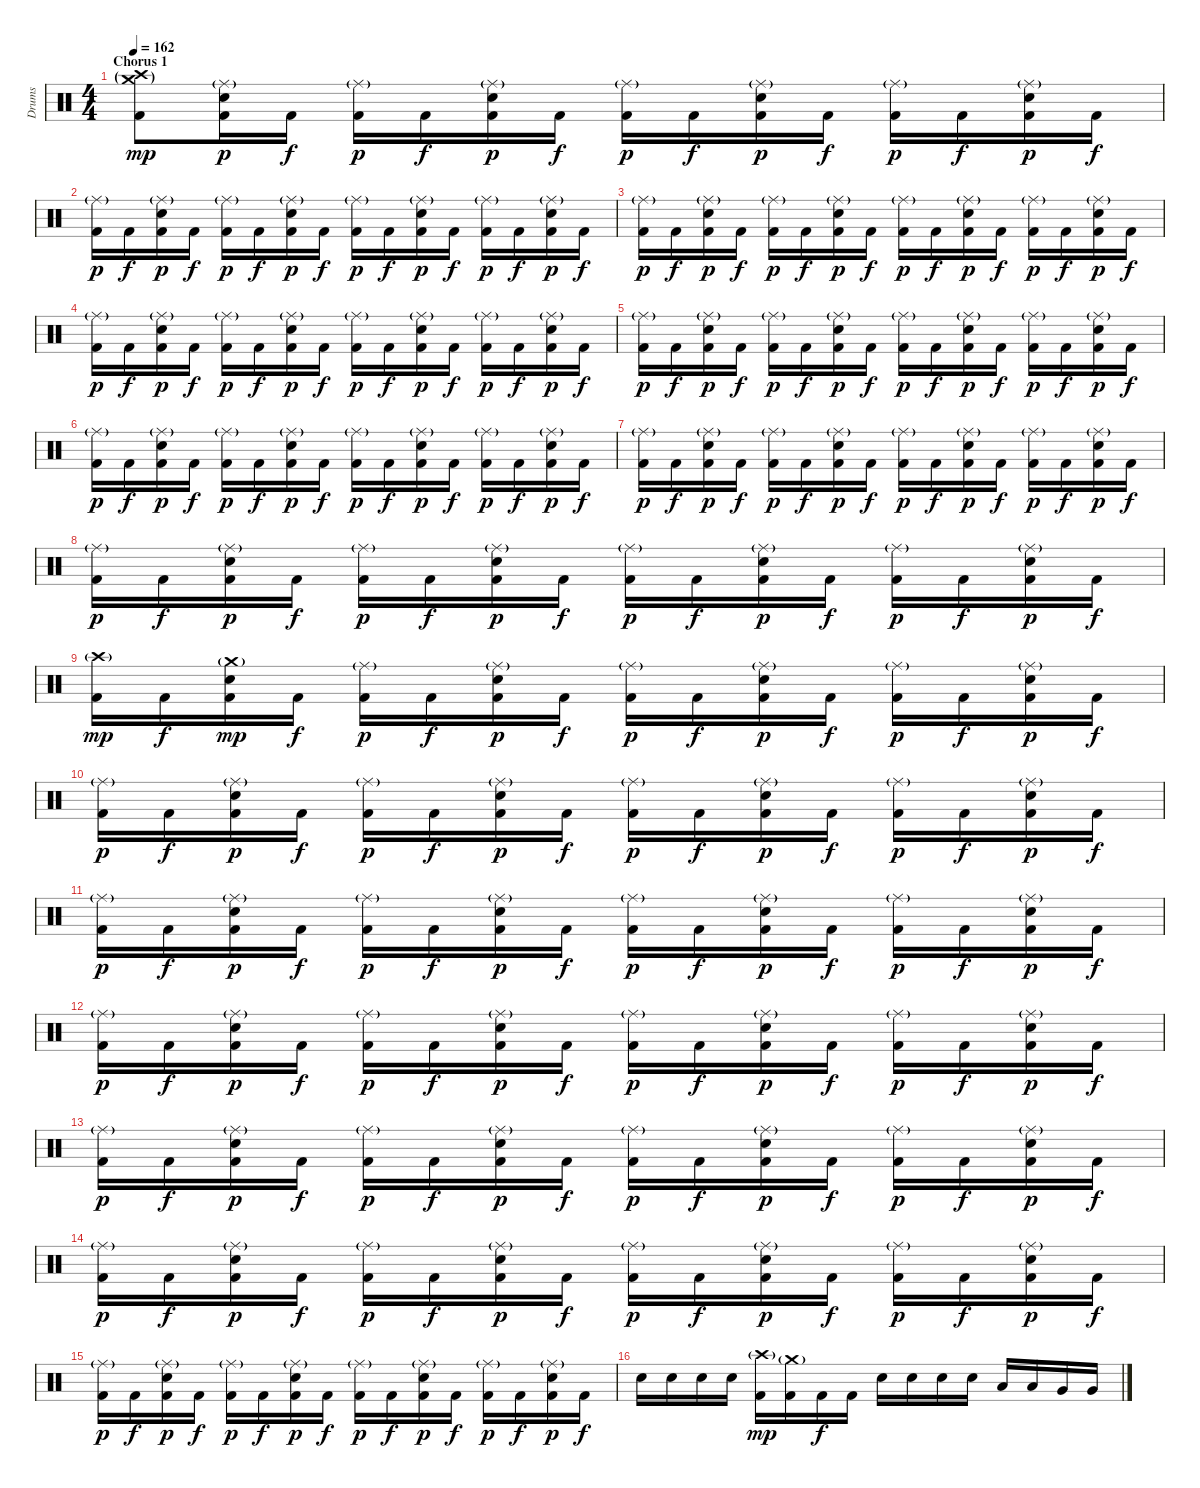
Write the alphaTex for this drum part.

\track ("Drums" "Drums") {instrument percussion}
\staff {score}
\articulation defaults
\ts (4 4)
\section ("" "Chorus 1")
\tempo 162
\clef neutral
\ks c
("Crash medium (hit)"{g} "Crash high (hit)"{g} "Kick (hit) 2").8{dy mp} ("Ride (middle)"{g} "Snare (hit) 2" "Kick (hit) 2").16{dy p} "Kick (hit) 2".16{dy f} ("Ride (middle)"{g} "Kick (hit) 2").16{dy p} "Kick (hit) 2".16{dy f} ("Ride (middle)"{g} "Snare (hit) 2" "Kick (hit) 2").16{dy p} "Kick (hit) 2".16{dy f} ("Ride (middle)"{g} "Kick (hit) 2").16{dy p} "Kick (hit) 2".16{dy f} ("Ride (middle)"{g} "Snare (hit) 2" "Kick (hit) 2").16{dy p} "Kick (hit) 2".16{dy f} ("Ride (middle)"{g} "Kick (hit) 2").16{dy p} "Kick (hit) 2".16{dy f} ("Ride (middle)"{g} "Snare (hit) 2" "Kick (hit) 2").16{dy p} "Kick (hit) 2".16{dy f} |
("Ride (middle)"{g} "Kick (hit) 2").16{dy p} "Kick (hit) 2".16{dy f} ("Ride (middle)"{g} "Snare (hit) 2" "Kick (hit) 2").16{dy p} "Kick (hit) 2".16{dy f} ("Ride (middle)"{g} "Kick (hit) 2").16{dy p} "Kick (hit) 2".16{dy f} ("Ride (middle)"{g} "Snare (hit) 2" "Kick (hit) 2").16{dy p} "Kick (hit) 2".16{dy f} ("Ride (middle)"{g} "Kick (hit) 2").16{dy p} "Kick (hit) 2".16{dy f} ("Ride (middle)"{g} "Snare (hit) 2" "Kick (hit) 2").16{dy p} "Kick (hit) 2".16{dy f} ("Ride (middle)"{g} "Kick (hit) 2").16{dy p} "Kick (hit) 2".16{dy f} ("Ride (middle)"{g} "Snare (hit) 2" "Kick (hit) 2").16{dy p} "Kick (hit) 2".16{dy f} |
("Ride (middle)"{g} "Kick (hit) 2").16{dy p} "Kick (hit) 2".16{dy f} ("Ride (middle)"{g} "Snare (hit) 2" "Kick (hit) 2").16{dy p} "Kick (hit) 2".16{dy f} ("Ride (middle)"{g} "Kick (hit) 2").16{dy p} "Kick (hit) 2".16{dy f} ("Ride (middle)"{g} "Snare (hit) 2" "Kick (hit) 2").16{dy p} "Kick (hit) 2".16{dy f} ("Ride (middle)"{g} "Kick (hit) 2").16{dy p} "Kick (hit) 2".16{dy f} ("Ride (middle)"{g} "Snare (hit) 2" "Kick (hit) 2").16{dy p} "Kick (hit) 2".16{dy f} ("Ride (middle)"{g} "Kick (hit) 2").16{dy p} "Kick (hit) 2".16{dy f} ("Ride (middle)"{g} "Snare (hit) 2" "Kick (hit) 2").16{dy p} "Kick (hit) 2".16{dy f} |
("Ride (middle)"{g} "Kick (hit) 2").16{dy p} "Kick (hit) 2".16{dy f} ("Ride (middle)"{g} "Snare (hit) 2" "Kick (hit) 2").16{dy p} "Kick (hit) 2".16{dy f} ("Ride (middle)"{g} "Kick (hit) 2").16{dy p} "Kick (hit) 2".16{dy f} ("Ride (middle)"{g} "Snare (hit) 2" "Kick (hit) 2").16{dy p} "Kick (hit) 2".16{dy f} ("Ride (middle)"{g} "Kick (hit) 2").16{dy p} "Kick (hit) 2".16{dy f} ("Ride (middle)"{g} "Snare (hit) 2" "Kick (hit) 2").16{dy p} "Kick (hit) 2".16{dy f} ("Ride (middle)"{g} "Kick (hit) 2").16{dy p} "Kick (hit) 2".16{dy f} ("Ride (middle)"{g} "Snare (hit) 2" "Kick (hit) 2").16{dy p} "Kick (hit) 2".16{dy f} |
("Ride (middle)"{g} "Kick (hit) 2").16{dy p} "Kick (hit) 2".16{dy f} ("Ride (middle)"{g} "Snare (hit) 2" "Kick (hit) 2").16{dy p} "Kick (hit) 2".16{dy f} ("Ride (middle)"{g} "Kick (hit) 2").16{dy p} "Kick (hit) 2".16{dy f} ("Ride (middle)"{g} "Snare (hit) 2" "Kick (hit) 2").16{dy p} "Kick (hit) 2".16{dy f} ("Ride (middle)"{g} "Kick (hit) 2").16{dy p} "Kick (hit) 2".16{dy f} ("Ride (middle)"{g} "Snare (hit) 2" "Kick (hit) 2").16{dy p} "Kick (hit) 2".16{dy f} ("Ride (middle)"{g} "Kick (hit) 2").16{dy p} "Kick (hit) 2".16{dy f} ("Ride (middle)"{g} "Snare (hit) 2" "Kick (hit) 2").16{dy p} "Kick (hit) 2".16{dy f} |
("Ride (middle)"{g} "Kick (hit) 2").16{dy p} "Kick (hit) 2".16{dy f} ("Ride (middle)"{g} "Snare (hit) 2" "Kick (hit) 2").16{dy p} "Kick (hit) 2".16{dy f} ("Ride (middle)"{g} "Kick (hit) 2").16{dy p} "Kick (hit) 2".16{dy f} ("Ride (middle)"{g} "Snare (hit) 2" "Kick (hit) 2").16{dy p} "Kick (hit) 2".16{dy f} ("Ride (middle)"{g} "Kick (hit) 2").16{dy p} "Kick (hit) 2".16{dy f} ("Ride (middle)"{g} "Snare (hit) 2" "Kick (hit) 2").16{dy p} "Kick (hit) 2".16{dy f} ("Ride (middle)"{g} "Kick (hit) 2").16{dy p} "Kick (hit) 2".16{dy f} ("Ride (middle)"{g} "Snare (hit) 2" "Kick (hit) 2").16{dy p} "Kick (hit) 2".16{dy f} |
("Ride (middle)"{g} "Kick (hit) 2").16{dy p} "Kick (hit) 2".16{dy f} ("Ride (middle)"{g} "Snare (hit) 2" "Kick (hit) 2").16{dy p} "Kick (hit) 2".16{dy f} ("Ride (middle)"{g} "Kick (hit) 2").16{dy p} "Kick (hit) 2".16{dy f} ("Ride (middle)"{g} "Snare (hit) 2" "Kick (hit) 2").16{dy p} "Kick (hit) 2".16{dy f} ("Ride (middle)"{g} "Kick (hit) 2").16{dy p} "Kick (hit) 2".16{dy f} ("Ride (middle)"{g} "Snare (hit) 2" "Kick (hit) 2").16{dy p} "Kick (hit) 2".16{dy f} ("Ride (middle)"{g} "Kick (hit) 2").16{dy p} "Kick (hit) 2".16{dy f} ("Ride (middle)"{g} "Snare (hit) 2" "Kick (hit) 2").16{dy p} "Kick (hit) 2".16{dy f} |
("Ride (middle)"{g} "Kick (hit) 2").16{dy p} "Kick (hit) 2".16{dy f} ("Ride (middle)"{g} "Snare (hit) 2" "Kick (hit) 2").16{dy p} "Kick (hit) 2".16{dy f} ("Ride (middle)"{g} "Kick (hit) 2").16{dy p} "Kick (hit) 2".16{dy f} ("Ride (middle)"{g} "Snare (hit) 2" "Kick (hit) 2").16{dy p} "Kick (hit) 2".16{dy f} ("Ride (middle)"{g} "Kick (hit) 2").16{dy p} "Kick (hit) 2".16{dy f} ("Ride (middle)"{g} "Snare (hit) 2" "Kick (hit) 2").16{dy p} "Kick (hit) 2".16{dy f} ("Ride (middle)"{g} "Kick (hit) 2").16{dy p} "Kick (hit) 2".16{dy f} ("Ride (middle)"{g} "Snare (hit) 2" "Kick (hit) 2").16{dy p} "Kick (hit) 2".16{dy f} |
("Crash high (hit)"{g} "Kick (hit) 2").16{dy mp} "Kick (hit) 2".16{dy f} ("Crash medium (hit)"{g} "Snare (hit) 2" "Kick (hit) 2").16{dy mp} "Kick (hit) 2".16{dy f} ("Ride (middle)"{g} "Kick (hit) 2").16{dy p} "Kick (hit) 2".16{dy f} ("Ride (middle)"{g} "Snare (hit) 2" "Kick (hit) 2").16{dy p} "Kick (hit) 2".16{dy f} ("Ride (middle)"{g} "Kick (hit) 2").16{dy p} "Kick (hit) 2".16{dy f} ("Ride (middle)"{g} "Snare (hit) 2" "Kick (hit) 2").16{dy p} "Kick (hit) 2".16{dy f} ("Ride (middle)"{g} "Kick (hit) 2").16{dy p} "Kick (hit) 2".16{dy f} ("Ride (middle)"{g} "Snare (hit) 2" "Kick (hit) 2").16{dy p} "Kick (hit) 2".16{dy f} |
("Ride (middle)"{g} "Kick (hit) 2").16{dy p} "Kick (hit) 2".16{dy f} ("Ride (middle)"{g} "Snare (hit) 2" "Kick (hit) 2").16{dy p} "Kick (hit) 2".16{dy f} ("Ride (middle)"{g} "Kick (hit) 2").16{dy p} "Kick (hit) 2".16{dy f} ("Ride (middle)"{g} "Snare (hit) 2" "Kick (hit) 2").16{dy p} "Kick (hit) 2".16{dy f} ("Ride (middle)"{g} "Kick (hit) 2").16{dy p} "Kick (hit) 2".16{dy f} ("Ride (middle)"{g} "Snare (hit) 2" "Kick (hit) 2").16{dy p} "Kick (hit) 2".16{dy f} ("Ride (middle)"{g} "Kick (hit) 2").16{dy p} "Kick (hit) 2".16{dy f} ("Ride (middle)"{g} "Snare (hit) 2" "Kick (hit) 2").16{dy p} "Kick (hit) 2".16{dy f} |
("Ride (middle)"{g} "Kick (hit) 2").16{dy p} "Kick (hit) 2".16{dy f} ("Ride (middle)"{g} "Snare (hit) 2" "Kick (hit) 2").16{dy p} "Kick (hit) 2".16{dy f} ("Ride (middle)"{g} "Kick (hit) 2").16{dy p} "Kick (hit) 2".16{dy f} ("Ride (middle)"{g} "Snare (hit) 2" "Kick (hit) 2").16{dy p} "Kick (hit) 2".16{dy f} ("Ride (middle)"{g} "Kick (hit) 2").16{dy p} "Kick (hit) 2".16{dy f} ("Ride (middle)"{g} "Snare (hit) 2" "Kick (hit) 2").16{dy p} "Kick (hit) 2".16{dy f} ("Ride (middle)"{g} "Kick (hit) 2").16{dy p} "Kick (hit) 2".16{dy f} ("Ride (middle)"{g} "Snare (hit) 2" "Kick (hit) 2").16{dy p} "Kick (hit) 2".16{dy f} |
("Ride (middle)"{g} "Kick (hit) 2").16{dy p} "Kick (hit) 2".16{dy f} ("Ride (middle)"{g} "Snare (hit) 2" "Kick (hit) 2").16{dy p} "Kick (hit) 2".16{dy f} ("Ride (middle)"{g} "Kick (hit) 2").16{dy p} "Kick (hit) 2".16{dy f} ("Ride (middle)"{g} "Snare (hit) 2" "Kick (hit) 2").16{dy p} "Kick (hit) 2".16{dy f} ("Ride (middle)"{g} "Kick (hit) 2").16{dy p} "Kick (hit) 2".16{dy f} ("Ride (middle)"{g} "Snare (hit) 2" "Kick (hit) 2").16{dy p} "Kick (hit) 2".16{dy f} ("Ride (middle)"{g} "Kick (hit) 2").16{dy p} "Kick (hit) 2".16{dy f} ("Ride (middle)"{g} "Snare (hit) 2" "Kick (hit) 2").16{dy p} "Kick (hit) 2".16{dy f} |
("Ride (middle)"{g} "Kick (hit) 2").16{dy p} "Kick (hit) 2".16{dy f} ("Ride (middle)"{g} "Snare (hit) 2" "Kick (hit) 2").16{dy p} "Kick (hit) 2".16{dy f} ("Ride (middle)"{g} "Kick (hit) 2").16{dy p} "Kick (hit) 2".16{dy f} ("Ride (middle)"{g} "Snare (hit) 2" "Kick (hit) 2").16{dy p} "Kick (hit) 2".16{dy f} ("Ride (middle)"{g} "Kick (hit) 2").16{dy p} "Kick (hit) 2".16{dy f} ("Ride (middle)"{g} "Snare (hit) 2" "Kick (hit) 2").16{dy p} "Kick (hit) 2".16{dy f} ("Ride (middle)"{g} "Kick (hit) 2").16{dy p} "Kick (hit) 2".16{dy f} ("Ride (middle)"{g} "Snare (hit) 2" "Kick (hit) 2").16{dy p} "Kick (hit) 2".16{dy f} |
("Ride (middle)"{g} "Kick (hit) 2").16{dy p} "Kick (hit) 2".16{dy f} ("Ride (middle)"{g} "Snare (hit) 2" "Kick (hit) 2").16{dy p} "Kick (hit) 2".16{dy f} ("Ride (middle)"{g} "Kick (hit) 2").16{dy p} "Kick (hit) 2".16{dy f} ("Ride (middle)"{g} "Snare (hit) 2" "Kick (hit) 2").16{dy p} "Kick (hit) 2".16{dy f} ("Ride (middle)"{g} "Kick (hit) 2").16{dy p} "Kick (hit) 2".16{dy f} ("Ride (middle)"{g} "Snare (hit) 2" "Kick (hit) 2").16{dy p} "Kick (hit) 2".16{dy f} ("Ride (middle)"{g} "Kick (hit) 2").16{dy p} "Kick (hit) 2".16{dy f} ("Ride (middle)"{g} "Snare (hit) 2" "Kick (hit) 2").16{dy p} "Kick (hit) 2".16{dy f} |
("Ride (middle)"{g} "Kick (hit) 2").16{dy p} "Kick (hit) 2".16{dy f} ("Ride (middle)"{g} "Snare (hit) 2" "Kick (hit) 2").16{dy p} "Kick (hit) 2".16{dy f} ("Ride (middle)"{g} "Kick (hit) 2").16{dy p} "Kick (hit) 2".16{dy f} ("Ride (middle)"{g} "Snare (hit) 2" "Kick (hit) 2").16{dy p} "Kick (hit) 2".16{dy f} ("Ride (middle)"{g} "Kick (hit) 2").16{dy p} "Kick (hit) 2".16{dy f} ("Ride (middle)"{g} "Snare (hit) 2" "Kick (hit) 2").16{dy p} "Kick (hit) 2".16{dy f} ("Ride (middle)"{g} "Kick (hit) 2").16{dy p} "Kick (hit) 2".16{dy f} ("Ride (middle)"{g} "Snare (hit) 2" "Kick (hit) 2").16{dy p} "Kick (hit) 2".16{dy f} |
"Snare (hit) 2".16 "Snare (hit) 2".16 "Snare (hit) 2".16 "Snare (hit) 2".16 ("Crash high (hit)"{g} "Kick (hit) 2").16{dy mp} ("Crash medium (hit)"{g} "Kick (hit) 2").16 "Kick (hit) 2".16{dy f} "Kick (hit) 2".16 "Snare (hit) 2".16 "Snare (hit) 2".16 "Snare (hit) 2".16 "Snare (hit) 2".16 "Low Tom (hit)".16 "Low Tom (hit)".16 "Very Low Tom (hit)".16 "Very Low Tom (hit)".16
